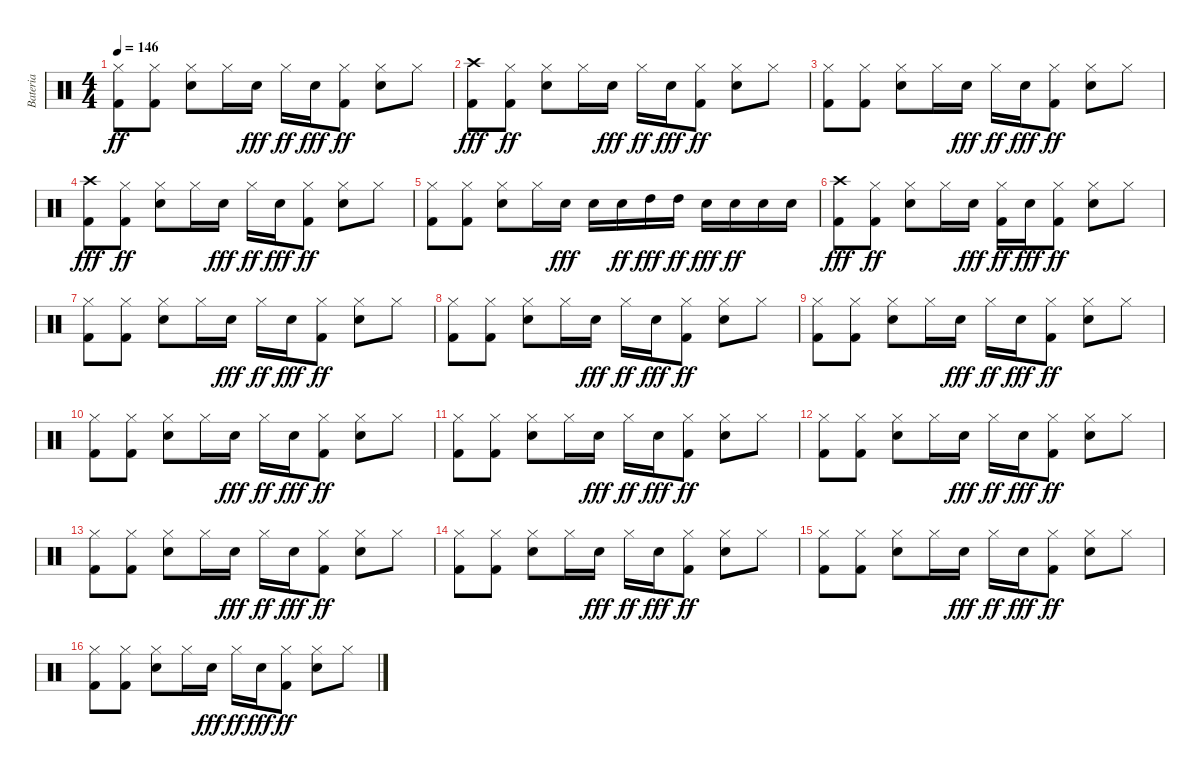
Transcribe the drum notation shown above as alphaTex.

\track ("Bateria" "Bateria") {instrument percussion}
\staff {score}
\articulation defaults
\ts (4 4)
\tempo 146
\clef neutral
\ks c
("Kick (hit) 2" "Hi-Hat (closed)").8{dy ff} ("Kick (hit) 2" "Hi-Hat (closed)").8 ("Electric Snare (hit)" "Hi-Hat (closed)").8 "Hi-Hat (closed)".16 "Electric Snare (hit)".16{dy fff} "Hi-Hat (closed)".16{dy ff} "Electric Snare (hit)".16{dy fff} ("Kick (hit) 2" "Hi-Hat (closed)").8{dy ff} ("Electric Snare (hit)" "Hi-Hat (closed)").8 "Hi-Hat (closed)".8 |
("Crash high (hit)" "Kick (hit) 2").8{dy fff} ("Kick (hit) 2" "Hi-Hat (closed)").8{dy ff} ("Electric Snare (hit)" "Hi-Hat (closed)").8 "Hi-Hat (closed)".16 "Electric Snare (hit)".16{dy fff} "Hi-Hat (closed)".16{dy ff} "Electric Snare (hit)".16{dy fff} ("Kick (hit) 2" "Hi-Hat (closed)").8{dy ff} ("Electric Snare (hit)" "Hi-Hat (closed)").8 "Hi-Hat (closed)".8 |
("Kick (hit) 2" "Hi-Hat (closed)").8 ("Kick (hit) 2" "Hi-Hat (closed)").8 ("Electric Snare (hit)" "Hi-Hat (closed)").8 "Hi-Hat (closed)".16 "Electric Snare (hit)".16{dy fff} "Hi-Hat (closed)".16{dy ff} "Electric Snare (hit)".16{dy fff} ("Kick (hit) 2" "Hi-Hat (closed)").8{dy ff} ("Electric Snare (hit)" "Hi-Hat (closed)").8 "Hi-Hat (closed)".8 |
("Crash high (hit)" "Kick (hit) 2").8{dy fff} ("Kick (hit) 2" "Hi-Hat (closed)").8{dy ff} ("Electric Snare (hit)" "Hi-Hat (closed)").8 "Hi-Hat (closed)".16 "Electric Snare (hit)".16{dy fff} "Hi-Hat (closed)".16{dy ff} "Electric Snare (hit)".16{dy fff} ("Kick (hit) 2" "Hi-Hat (closed)").8{dy ff} ("Electric Snare (hit)" "Hi-Hat (closed)").8 "Hi-Hat (closed)".8 |
("Kick (hit) 2" "Hi-Hat (closed)").8 ("Kick (hit) 2" "Hi-Hat (closed)").8 ("Electric Snare (hit)" "Hi-Hat (closed)").8 "Hi-Hat (closed)".16 "Electric Snare (hit)".16{dy fff} "Electric Snare (hit)".16 "Electric Snare (hit)".16{dy ff} "High Tom (hit)".16{dy fff} "High Tom (hit)".16{dy ff} "Electric Snare (hit)".16{dy fff} "Electric Snare (hit)".16{dy ff} "Electric Snare (hit)".16 "Electric Snare (hit)".16 |
("Crash high (hit)" "Kick (hit) 2").8{dy fff} ("Kick (hit) 2" "Hi-Hat (closed)").8{dy ff} ("Electric Snare (hit)" "Hi-Hat (closed)").8 "Hi-Hat (closed)".16 "Electric Snare (hit)".16{dy fff} ("Kick (hit) 2" "Hi-Hat (closed)").16{dy ff} "Electric Snare (hit)".16{dy fff} ("Kick (hit) 2" "Hi-Hat (closed)").8{dy ff} ("Electric Snare (hit)" "Hi-Hat (closed)").8 "Hi-Hat (closed)".8 |
("Kick (hit) 2" "Hi-Hat (closed)").8 ("Kick (hit) 2" "Hi-Hat (closed)").8 ("Electric Snare (hit)" "Hi-Hat (closed)").8 "Hi-Hat (closed)".16 "Electric Snare (hit)".16{dy fff} "Hi-Hat (closed)".16{dy ff} "Electric Snare (hit)".16{dy fff} ("Kick (hit) 2" "Hi-Hat (closed)").8{dy ff} ("Electric Snare (hit)" "Hi-Hat (closed)").8 "Hi-Hat (closed)".8 |
("Kick (hit) 2" "Hi-Hat (closed)").8 ("Kick (hit) 2" "Hi-Hat (closed)").8 ("Electric Snare (hit)" "Hi-Hat (closed)").8 "Hi-Hat (closed)".16 "Electric Snare (hit)".16{dy fff} "Hi-Hat (closed)".16{dy ff} "Electric Snare (hit)".16{dy fff} ("Kick (hit) 2" "Hi-Hat (closed)").8{dy ff} ("Electric Snare (hit)" "Hi-Hat (closed)").8 "Hi-Hat (closed)".8 |
("Kick (hit) 2" "Hi-Hat (closed)").8 ("Kick (hit) 2" "Hi-Hat (closed)").8 ("Electric Snare (hit)" "Hi-Hat (closed)").8 "Hi-Hat (closed)".16 "Electric Snare (hit)".16{dy fff} "Hi-Hat (closed)".16{dy ff} "Electric Snare (hit)".16{dy fff} ("Kick (hit) 2" "Hi-Hat (closed)").8{dy ff} ("Electric Snare (hit)" "Hi-Hat (closed)").8 "Hi-Hat (closed)".8 |
("Kick (hit) 2" "Hi-Hat (closed)").8 ("Kick (hit) 2" "Hi-Hat (closed)").8 ("Electric Snare (hit)" "Hi-Hat (closed)").8 "Hi-Hat (closed)".16 "Electric Snare (hit)".16{dy fff} "Hi-Hat (closed)".16{dy ff} "Electric Snare (hit)".16{dy fff} ("Kick (hit) 2" "Hi-Hat (closed)").8{dy ff} ("Electric Snare (hit)" "Hi-Hat (closed)").8 "Hi-Hat (closed)".8 |
("Kick (hit) 2" "Hi-Hat (closed)").8 ("Kick (hit) 2" "Hi-Hat (closed)").8 ("Electric Snare (hit)" "Hi-Hat (closed)").8 "Hi-Hat (closed)".16 "Electric Snare (hit)".16{dy fff} "Hi-Hat (closed)".16{dy ff} "Electric Snare (hit)".16{dy fff} ("Kick (hit) 2" "Hi-Hat (closed)").8{dy ff} ("Electric Snare (hit)" "Hi-Hat (closed)").8 "Hi-Hat (closed)".8 |
("Kick (hit) 2" "Hi-Hat (closed)").8 ("Kick (hit) 2" "Hi-Hat (closed)").8 ("Electric Snare (hit)" "Hi-Hat (closed)").8 "Hi-Hat (closed)".16 "Electric Snare (hit)".16{dy fff} "Hi-Hat (closed)".16{dy ff} "Electric Snare (hit)".16{dy fff} ("Kick (hit) 2" "Hi-Hat (closed)").8{dy ff} ("Electric Snare (hit)" "Hi-Hat (closed)").8 "Hi-Hat (closed)".8 |
("Kick (hit) 2" "Hi-Hat (closed)").8 ("Kick (hit) 2" "Hi-Hat (closed)").8 ("Electric Snare (hit)" "Hi-Hat (closed)").8 "Hi-Hat (closed)".16 "Electric Snare (hit)".16{dy fff} "Hi-Hat (closed)".16{dy ff} "Electric Snare (hit)".16{dy fff} ("Kick (hit) 2" "Hi-Hat (closed)").8{dy ff} ("Electric Snare (hit)" "Hi-Hat (closed)").8 "Hi-Hat (closed)".8 |
("Kick (hit) 2" "Hi-Hat (closed)").8 ("Kick (hit) 2" "Hi-Hat (closed)").8 ("Electric Snare (hit)" "Hi-Hat (closed)").8 "Hi-Hat (closed)".16 "Electric Snare (hit)".16{dy fff} "Hi-Hat (closed)".16{dy ff} "Electric Snare (hit)".16{dy fff} ("Kick (hit) 2" "Hi-Hat (closed)").8{dy ff} ("Electric Snare (hit)" "Hi-Hat (closed)").8 "Hi-Hat (closed)".8 |
("Kick (hit) 2" "Hi-Hat (closed)").8 ("Kick (hit) 2" "Hi-Hat (closed)").8 ("Electric Snare (hit)" "Hi-Hat (closed)").8 "Hi-Hat (closed)".16 "Electric Snare (hit)".16{dy fff} "Hi-Hat (closed)".16{dy ff} "Electric Snare (hit)".16{dy fff} ("Kick (hit) 2" "Hi-Hat (closed)").8{dy ff} ("Electric Snare (hit)" "Hi-Hat (closed)").8 "Hi-Hat (closed)".8 |
("Kick (hit) 2" "Hi-Hat (closed)").8 ("Kick (hit) 2" "Hi-Hat (closed)").8 ("Electric Snare (hit)" "Hi-Hat (closed)").8 "Hi-Hat (closed)".16 "Electric Snare (hit)".16{dy fff} "Hi-Hat (closed)".16{dy ff} "Electric Snare (hit)".16{dy fff} ("Kick (hit) 2" "Hi-Hat (closed)").8{dy ff} ("Electric Snare (hit)" "Hi-Hat (closed)").8 "Hi-Hat (closed)".8
